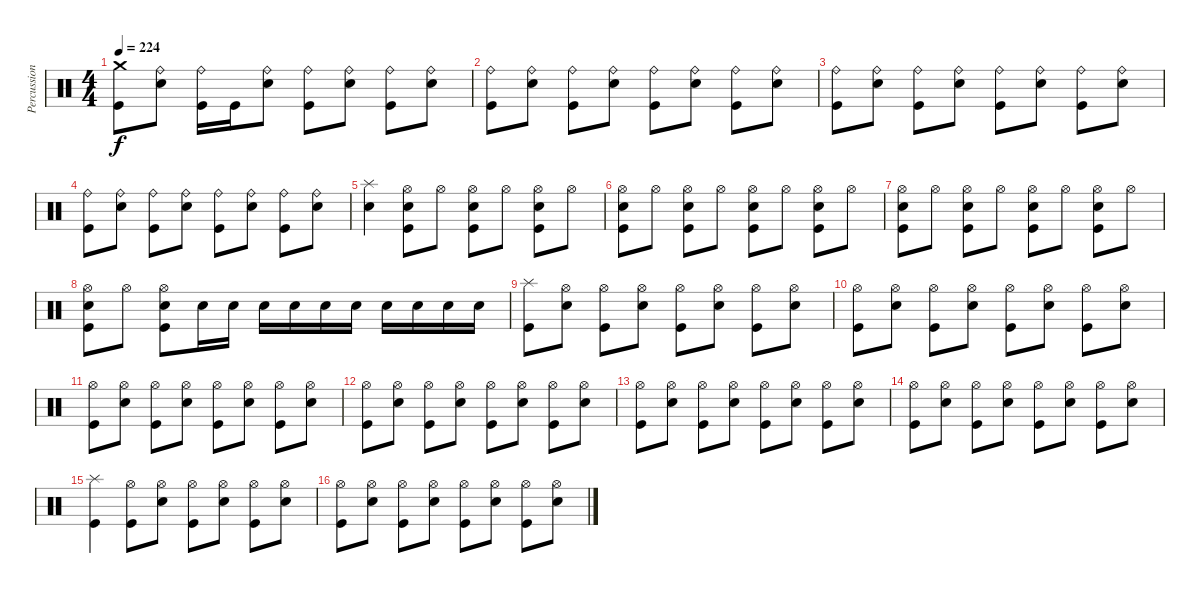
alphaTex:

\track ("Percussions" "Percussion") {instrument percussion}
\staff {score}
\articulation defaults
\ts (4 4)
\tempo 224
\clef neutral
\ks c
("Kick (hit)" "Crash medium (hit)").8{dy f} ("Electric Snare (hit)" "Ride (bell)").8 ("Kick (hit)" "Ride (bell)").16 "Kick (hit)".16 ("Electric Snare (hit)" "Ride (bell)").8 ("Kick (hit)" "Ride (bell)").8 ("Electric Snare (hit)" "Ride (bell)").8 ("Kick (hit)" "Ride (bell)").8 ("Electric Snare (hit)" "Ride (bell)").8 |
("Kick (hit)" "Ride (bell)").8 ("Electric Snare (hit)" "Ride (bell)").8 ("Kick (hit)" "Ride (bell)").8 ("Electric Snare (hit)" "Ride (bell)").8 ("Kick (hit)" "Ride (bell)").8 ("Electric Snare (hit)" "Ride (bell)").8 ("Kick (hit)" "Ride (bell)").8 ("Electric Snare (hit)" "Ride (bell)").8 |
("Kick (hit)" "Ride (bell)").8 ("Electric Snare (hit)" "Ride (bell)").8 ("Kick (hit)" "Ride (bell)").8 ("Electric Snare (hit)" "Ride (bell)").8 ("Kick (hit)" "Ride (bell)").8 ("Electric Snare (hit)" "Ride (bell)").8 ("Kick (hit)" "Ride (bell)").8 ("Electric Snare (hit)" "Ride (bell)").8 |
("Kick (hit)" "Ride (bell)").8 ("Electric Snare (hit)" "Ride (bell)").8 ("Kick (hit)" "Ride (bell)").8 ("Electric Snare (hit)" "Ride (bell)").8 ("Kick (hit)" "Ride (bell)").8 ("Electric Snare (hit)" "Ride (bell)").8 ("Kick (hit)" "Ride (bell)").8 ("Electric Snare (hit)" "Ride (bell)").8 |
("Electric Snare (hit)" "Splash (hit)").4 ("Kick (hit)" "Electric Snare (hit)" "Hi-Hat (open)").8 "Hi-Hat (open)".8 ("Kick (hit)" "Electric Snare (hit)" "Hi-Hat (open)").8 "Hi-Hat (open)".8 ("Kick (hit)" "Electric Snare (hit)" "Hi-Hat (open)").8 "Hi-Hat (open)".8 |
("Kick (hit)" "Electric Snare (hit)" "Hi-Hat (open)").8 "Hi-Hat (open)".8 ("Kick (hit)" "Electric Snare (hit)" "Hi-Hat (open)").8 "Hi-Hat (open)".8 ("Kick (hit)" "Electric Snare (hit)" "Hi-Hat (open)").8 "Hi-Hat (open)".8 ("Kick (hit)" "Electric Snare (hit)" "Hi-Hat (open)").8 "Hi-Hat (open)".8 |
("Kick (hit)" "Electric Snare (hit)" "Hi-Hat (open)").8 "Hi-Hat (open)".8 ("Kick (hit)" "Electric Snare (hit)" "Hi-Hat (open)").8 "Hi-Hat (open)".8 ("Kick (hit)" "Electric Snare (hit)" "Hi-Hat (open)").8 "Hi-Hat (open)".8 ("Kick (hit)" "Electric Snare (hit)" "Hi-Hat (open)").8 "Hi-Hat (open)".8 |
("Kick (hit)" "Electric Snare (hit)" "Hi-Hat (open)").8 "Hi-Hat (open)".8 ("Kick (hit)" "Electric Snare (hit)" "Hi-Hat (open)").8 "Electric Snare (hit)".16 "Electric Snare (hit)".16 "Electric Snare (hit)".16 "Electric Snare (hit)".16 "Electric Snare (hit)".16 "Electric Snare (hit)".16 "Electric Snare (hit)".16 "Electric Snare (hit)".16 "Electric Snare (hit)".16 "Electric Snare (hit)".16 |
("Kick (hit)" "Splash (hit)").8 ("Electric Snare (hit)" "Hi-Hat (open)").8 ("Kick (hit)" "Hi-Hat (open)").8 ("Electric Snare (hit)" "Hi-Hat (open)").8 ("Kick (hit)" "Hi-Hat (open)").8 ("Electric Snare (hit)" "Hi-Hat (open)").8 ("Kick (hit)" "Hi-Hat (open)").8 ("Electric Snare (hit)" "Hi-Hat (open)").8 |
("Kick (hit)" "Hi-Hat (open)").8 ("Electric Snare (hit)" "Hi-Hat (open)").8 ("Kick (hit)" "Hi-Hat (open)").8 ("Electric Snare (hit)" "Hi-Hat (open)").8 ("Kick (hit)" "Hi-Hat (open)").8 ("Electric Snare (hit)" "Hi-Hat (open)").8 ("Kick (hit)" "Hi-Hat (open)").8 ("Electric Snare (hit)" "Hi-Hat (open)").8 |
("Kick (hit)" "Hi-Hat (open)").8 ("Electric Snare (hit)" "Hi-Hat (open)").8 ("Kick (hit)" "Hi-Hat (open)").8 ("Electric Snare (hit)" "Hi-Hat (open)").8 ("Kick (hit)" "Hi-Hat (open)").8 ("Electric Snare (hit)" "Hi-Hat (open)").8 ("Kick (hit)" "Hi-Hat (open)").8 ("Electric Snare (hit)" "Hi-Hat (open)").8 |
("Kick (hit)" "Hi-Hat (open)").8 ("Electric Snare (hit)" "Hi-Hat (open)").8 ("Kick (hit)" "Hi-Hat (open)").8 ("Electric Snare (hit)" "Hi-Hat (open)").8 ("Kick (hit)" "Hi-Hat (open)").8 ("Electric Snare (hit)" "Hi-Hat (open)").8 ("Kick (hit)" "Hi-Hat (open)").8 ("Electric Snare (hit)" "Hi-Hat (open)").8 |
("Kick (hit)" "Hi-Hat (open)").8 ("Electric Snare (hit)" "Hi-Hat (open)").8 ("Kick (hit)" "Hi-Hat (open)").8 ("Electric Snare (hit)" "Hi-Hat (open)").8 ("Kick (hit)" "Hi-Hat (open)").8 ("Electric Snare (hit)" "Hi-Hat (open)").8 ("Kick (hit)" "Hi-Hat (open)").8 ("Electric Snare (hit)" "Hi-Hat (open)").8 |
("Kick (hit)" "Hi-Hat (open)").8 ("Electric Snare (hit)" "Hi-Hat (open)").8 ("Kick (hit)" "Hi-Hat (open)").8 ("Electric Snare (hit)" "Hi-Hat (open)").8 ("Kick (hit)" "Hi-Hat (open)").8 ("Electric Snare (hit)" "Hi-Hat (open)").8 ("Kick (hit)" "Hi-Hat (open)").8 ("Electric Snare (hit)" "Hi-Hat (open)").8 |
("Kick (hit)" "Splash (hit)").4 ("Kick (hit)" "Hi-Hat (open)").8 ("Electric Snare (hit)" "Hi-Hat (open)").8 ("Kick (hit)" "Hi-Hat (open)").8 ("Electric Snare (hit)" "Hi-Hat (open)").8 ("Kick (hit)" "Hi-Hat (open)").8 ("Electric Snare (hit)" "Hi-Hat (open)").8 |
("Kick (hit)" "Hi-Hat (open)").8 ("Electric Snare (hit)" "Hi-Hat (open)").8 ("Kick (hit)" "Hi-Hat (open)").8 ("Electric Snare (hit)" "Hi-Hat (open)").8 ("Kick (hit)" "Hi-Hat (open)").8 ("Electric Snare (hit)" "Hi-Hat (open)").8 ("Kick (hit)" "Hi-Hat (open)").8 ("Electric Snare (hit)" "Hi-Hat (open)").8
